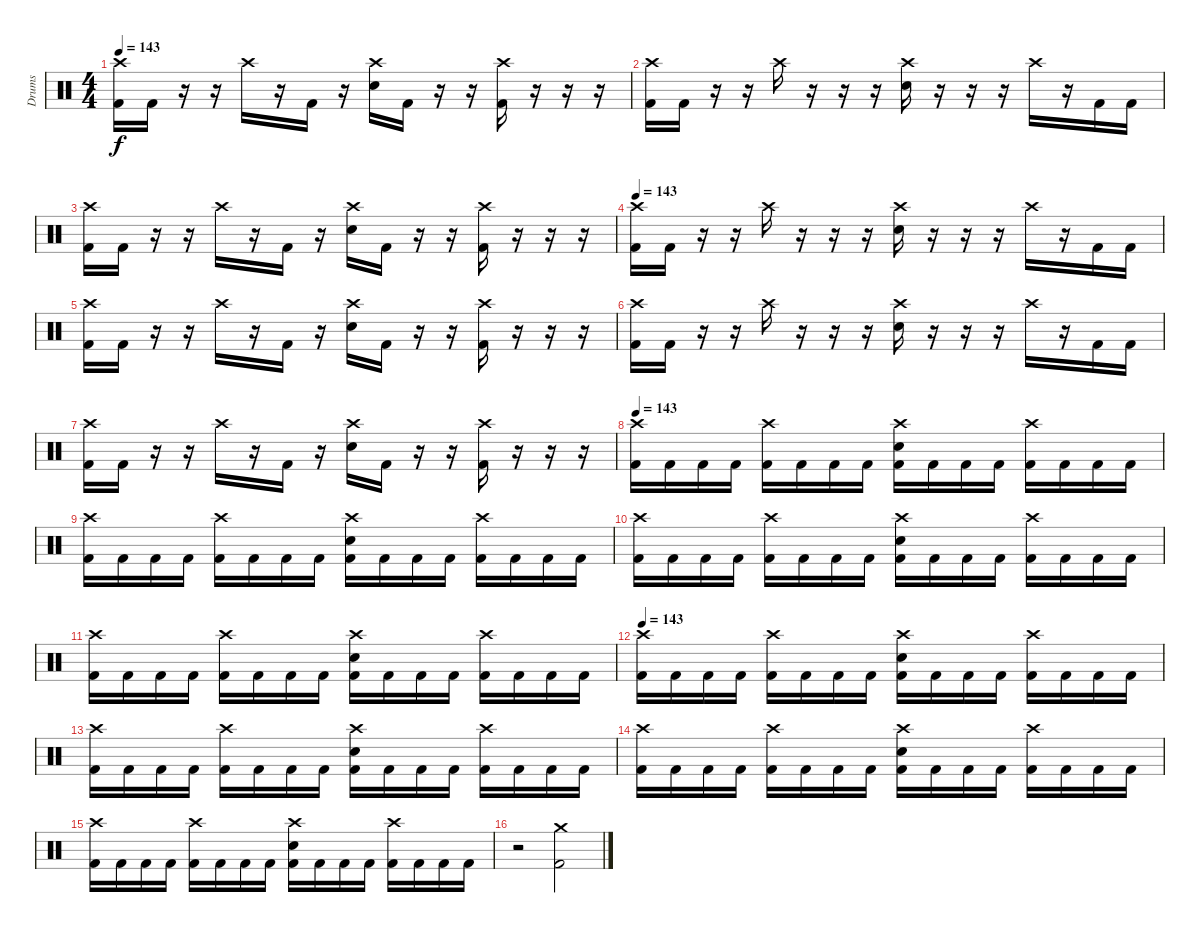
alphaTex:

\track ("Drums" "Drums") {instrument percussion}
\staff {score}
\articulation defaults
\ts (4 4)
\tempo 143
\clef neutral
\ks c
("Crash high (hit)" "Kick (hit) 2").16{dy f} "Kick (hit) 2".16 r.16 r.16 "Crash high (hit)".16 r.16 "Kick (hit) 2".16 r.16 ("Crash high (hit)" "Snare (hit) 2").16 "Kick (hit) 2".16 r.16 r.16 ("Crash high (hit)" "Kick (hit) 2").16 r.16 r.16 r.16 |
("Crash high (hit)" "Kick (hit) 2").16 "Kick (hit) 2".16 r.16 r.16 "Crash high (hit)".16 r.16 r.16 r.16 ("Crash high (hit)" "Snare (hit) 2").16 r.16 r.16 r.16 "Crash high (hit)".16 r.16 "Kick (hit) 2".16 "Kick (hit) 2".16 |
("Crash high (hit)" "Kick (hit) 2").16 "Kick (hit) 2".16 r.16 r.16 "Crash high (hit)".16 r.16 "Kick (hit) 2".16 r.16 ("Crash high (hit)" "Snare (hit) 2").16 "Kick (hit) 2".16 r.16 r.16 ("Crash high (hit)" "Kick (hit) 2").16 r.16 r.16 r.16 |
\tempo 143
("Crash high (hit)" "Kick (hit) 2").16 "Kick (hit) 2".16 r.16 r.16 "Crash high (hit)".16 r.16 r.16 r.16 ("Crash high (hit)" "Snare (hit) 2").16 r.16 r.16 r.16 "Crash high (hit)".16 r.16 "Kick (hit) 2".16 "Kick (hit) 2".16 |
("Crash high (hit)" "Kick (hit) 2").16 "Kick (hit) 2".16 r.16 r.16 "Crash high (hit)".16 r.16 "Kick (hit) 2".16 r.16 ("Crash high (hit)" "Snare (hit) 2").16 "Kick (hit) 2".16 r.16 r.16 ("Crash high (hit)" "Kick (hit) 2").16 r.16 r.16 r.16 |
("Crash high (hit)" "Kick (hit) 2").16 "Kick (hit) 2".16 r.16 r.16 "Crash high (hit)".16 r.16 r.16 r.16 ("Crash high (hit)" "Snare (hit) 2").16 r.16 r.16 r.16 "Crash high (hit)".16 r.16 "Kick (hit) 2".16 "Kick (hit) 2".16 |
("Crash high (hit)" "Kick (hit) 2").16 "Kick (hit) 2".16 r.16 r.16 "Crash high (hit)".16 r.16 "Kick (hit) 2".16 r.16 ("Crash high (hit)" "Snare (hit) 2").16 "Kick (hit) 2".16 r.16 r.16 ("Crash high (hit)" "Kick (hit) 2").16 r.16 r.16 r.16 |
\tempo 143
("Crash high (hit)" "Kick (hit) 2").16 "Kick (hit) 2".16 "Kick (hit) 2".16 "Kick (hit) 2".16 ("Crash high (hit)" "Kick (hit) 2").16 "Kick (hit) 2".16 "Kick (hit) 2".16 "Kick (hit) 2".16 ("Crash high (hit)" "Snare (hit) 2" "Kick (hit) 2").16 "Kick (hit) 2".16 "Kick (hit) 2".16 "Kick (hit) 2".16 ("Crash high (hit)" "Kick (hit) 2").16 "Kick (hit) 2".16 "Kick (hit) 2".16 "Kick (hit) 2".16 |
("Crash high (hit)" "Kick (hit) 2").16 "Kick (hit) 2".16 "Kick (hit) 2".16 "Kick (hit) 2".16 ("Crash high (hit)" "Kick (hit) 2").16 "Kick (hit) 2".16 "Kick (hit) 2".16 "Kick (hit) 2".16 ("Crash high (hit)" "Snare (hit) 2" "Kick (hit) 2").16 "Kick (hit) 2".16 "Kick (hit) 2".16 "Kick (hit) 2".16 ("Crash high (hit)" "Kick (hit) 2").16 "Kick (hit) 2".16 "Kick (hit) 2".16 "Kick (hit) 2".16 |
("Crash high (hit)" "Kick (hit) 2").16 "Kick (hit) 2".16 "Kick (hit) 2".16 "Kick (hit) 2".16 ("Crash high (hit)" "Kick (hit) 2").16 "Kick (hit) 2".16 "Kick (hit) 2".16 "Kick (hit) 2".16 ("Crash high (hit)" "Snare (hit) 2" "Kick (hit) 2").16 "Kick (hit) 2".16 "Kick (hit) 2".16 "Kick (hit) 2".16 ("Crash high (hit)" "Kick (hit) 2").16 "Kick (hit) 2".16 "Kick (hit) 2".16 "Kick (hit) 2".16 |
("Crash high (hit)" "Kick (hit) 2").16 "Kick (hit) 2".16 "Kick (hit) 2".16 "Kick (hit) 2".16 ("Crash high (hit)" "Kick (hit) 2").16 "Kick (hit) 2".16 "Kick (hit) 2".16 "Kick (hit) 2".16 ("Crash high (hit)" "Snare (hit) 2" "Kick (hit) 2").16 "Kick (hit) 2".16 "Kick (hit) 2".16 "Kick (hit) 2".16 ("Crash high (hit)" "Kick (hit) 2").16 "Kick (hit) 2".16 "Kick (hit) 2".16 "Kick (hit) 2".16 |
\tempo 143
("Crash high (hit)" "Kick (hit) 2").16 "Kick (hit) 2".16 "Kick (hit) 2".16 "Kick (hit) 2".16 ("Crash high (hit)" "Kick (hit) 2").16 "Kick (hit) 2".16 "Kick (hit) 2".16 "Kick (hit) 2".16 ("Crash high (hit)" "Snare (hit) 2" "Kick (hit) 2").16 "Kick (hit) 2".16 "Kick (hit) 2".16 "Kick (hit) 2".16 ("Crash high (hit)" "Kick (hit) 2").16 "Kick (hit) 2".16 "Kick (hit) 2".16 "Kick (hit) 2".16 |
("Crash high (hit)" "Kick (hit) 2").16 "Kick (hit) 2".16 "Kick (hit) 2".16 "Kick (hit) 2".16 ("Crash high (hit)" "Kick (hit) 2").16 "Kick (hit) 2".16 "Kick (hit) 2".16 "Kick (hit) 2".16 ("Crash high (hit)" "Snare (hit) 2" "Kick (hit) 2").16 "Kick (hit) 2".16 "Kick (hit) 2".16 "Kick (hit) 2".16 ("Crash high (hit)" "Kick (hit) 2").16 "Kick (hit) 2".16 "Kick (hit) 2".16 "Kick (hit) 2".16 |
("Crash high (hit)" "Kick (hit) 2").16 "Kick (hit) 2".16 "Kick (hit) 2".16 "Kick (hit) 2".16 ("Crash high (hit)" "Kick (hit) 2").16 "Kick (hit) 2".16 "Kick (hit) 2".16 "Kick (hit) 2".16 ("Crash high (hit)" "Snare (hit) 2" "Kick (hit) 2").16 "Kick (hit) 2".16 "Kick (hit) 2".16 "Kick (hit) 2".16 ("Crash high (hit)" "Kick (hit) 2").16 "Kick (hit) 2".16 "Kick (hit) 2".16 "Kick (hit) 2".16 |
("Crash high (hit)" "Kick (hit) 2").16 "Kick (hit) 2".16 "Kick (hit) 2".16 "Kick (hit) 2".16 ("Crash high (hit)" "Kick (hit) 2").16 "Kick (hit) 2".16 "Kick (hit) 2".16 "Kick (hit) 2".16 ("Crash high (hit)" "Snare (hit) 2" "Kick (hit) 2").16 "Kick (hit) 2".16 "Kick (hit) 2".16 "Kick (hit) 2".16 ("Crash high (hit)" "Kick (hit) 2").16 "Kick (hit) 2".16 "Kick (hit) 2".16 "Kick (hit) 2".16 |
r.2 ("Crash medium (hit)" "Kick (hit) 2").2
